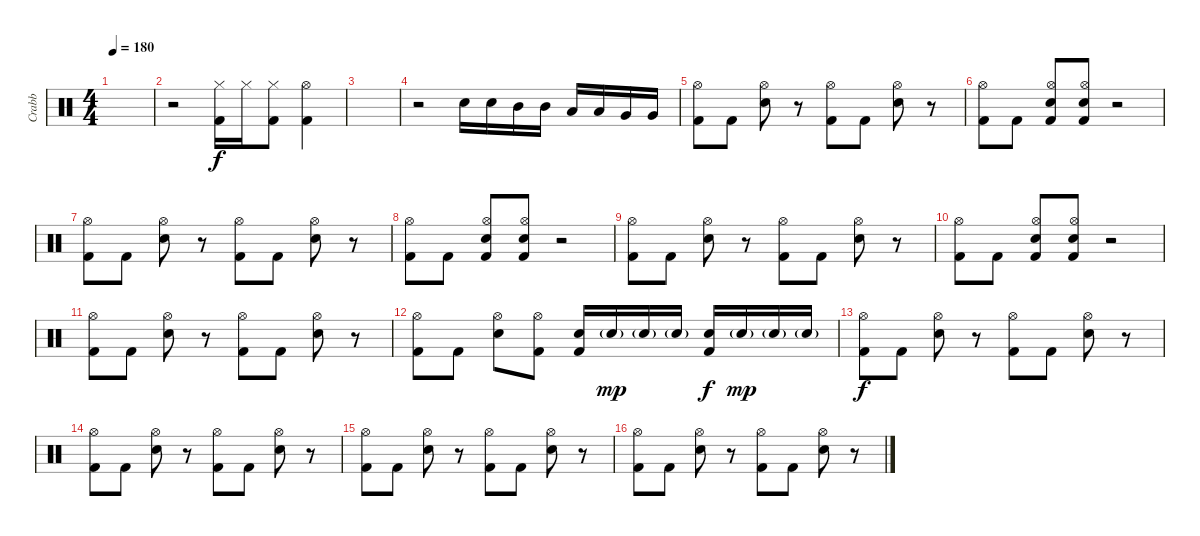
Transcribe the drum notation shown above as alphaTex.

\track ("Crabb" "Crabb") {instrument percussion}
\staff {score}
\articulation defaults
\ts (4 4)
\tempo 180
\clef neutral
\ks c
|
r.2 ("Hi-Hat (closed)" "Kick (hit) 2").16 "Hi-Hat (closed)".16 ("Hi-Hat (closed)" "Kick (hit) 2").8 ("Hi-Hat (open)" "Kick (hit) 2").4 |
|
r.2 "Electric Snare (hit)".16 "Electric Snare (hit)".16 "Mid Tom (hit)".16 "Mid Tom (hit)".16 "Low Tom (hit)".16 "Low Tom (hit)".16 "Very Low Tom (hit)".16 "Very Low Tom (hit)".16 |
("Hi-Hat (open)" "Kick (hit) 2").8 "Kick (hit) 2".8 ("Hi-Hat (open)" "Electric Snare (hit)").8 r.8 ("Hi-Hat (open)" "Kick (hit) 2").8 "Kick (hit) 2".8 ("Hi-Hat (open)" "Electric Snare (hit)").8 r.8 |
("Hi-Hat (open)" "Kick (hit) 2").8 "Kick (hit) 2".8 ("Hi-Hat (open)" "Electric Snare (hit)" "Kick (hit) 2").8 ("Hi-Hat (open)" "Electric Snare (hit)" "Kick (hit) 2").8 r.2 |
("Hi-Hat (open)" "Kick (hit) 2").8 "Kick (hit) 2".8 ("Hi-Hat (open)" "Electric Snare (hit)").8 r.8 ("Hi-Hat (open)" "Kick (hit) 2").8 "Kick (hit) 2".8 ("Hi-Hat (open)" "Electric Snare (hit)").8 r.8 |
("Hi-Hat (open)" "Kick (hit) 2").8 "Kick (hit) 2".8 ("Hi-Hat (open)" "Electric Snare (hit)" "Kick (hit) 2").8 ("Hi-Hat (open)" "Electric Snare (hit)" "Kick (hit) 2").8 r.2 |
("Hi-Hat (open)" "Kick (hit) 2").8 "Kick (hit) 2".8 ("Hi-Hat (open)" "Electric Snare (hit)").8 r.8 ("Hi-Hat (open)" "Kick (hit) 2").8 "Kick (hit) 2".8 ("Hi-Hat (open)" "Electric Snare (hit)").8 r.8 |
("Hi-Hat (open)" "Kick (hit) 2").8 "Kick (hit) 2".8 ("Hi-Hat (open)" "Electric Snare (hit)" "Kick (hit) 2").8 ("Hi-Hat (open)" "Electric Snare (hit)" "Kick (hit) 2").8 r.2 |
("Hi-Hat (open)" "Kick (hit) 2").8 "Kick (hit) 2".8 ("Hi-Hat (open)" "Electric Snare (hit)").8 r.8 ("Hi-Hat (open)" "Kick (hit) 2").8 "Kick (hit) 2".8 ("Hi-Hat (open)" "Electric Snare (hit)").8 r.8 |
("Hi-Hat (open)" "Kick (hit) 2").8 "Kick (hit) 2".8 ("Hi-Hat (open)" "Electric Snare (hit)").8 ("Hi-Hat (open)" "Kick (hit) 2").8 ("Electric Snare (hit)" "Kick (hit) 2").16 "Electric Snare (hit)"{g}.16{dy mp} "Electric Snare (hit)"{g}.16 "Electric Snare (hit)"{g}.16 ("Electric Snare (hit)" "Kick (hit) 2").16{dy f} "Electric Snare (hit)"{g}.16{dy mp} "Electric Snare (hit)"{g}.16 "Electric Snare (hit)"{g}.16 |
("Hi-Hat (open)" "Kick (hit) 2").8{dy f} "Kick (hit) 2".8 ("Hi-Hat (open)" "Electric Snare (hit)").8 r.8 ("Hi-Hat (open)" "Kick (hit) 2").8 "Kick (hit) 2".8 ("Hi-Hat (open)" "Electric Snare (hit)").8 r.8 |
("Hi-Hat (open)" "Kick (hit) 2").8 "Kick (hit) 2".8 ("Hi-Hat (open)" "Electric Snare (hit)").8 r.8 ("Hi-Hat (open)" "Kick (hit) 2").8 "Kick (hit) 2".8 ("Hi-Hat (open)" "Electric Snare (hit)").8 r.8 |
("Hi-Hat (open)" "Kick (hit) 2").8 "Kick (hit) 2".8 ("Hi-Hat (open)" "Electric Snare (hit)").8 r.8 ("Hi-Hat (open)" "Kick (hit) 2").8 "Kick (hit) 2".8 ("Hi-Hat (open)" "Electric Snare (hit)").8 r.8 |
("Hi-Hat (open)" "Kick (hit) 2").8 "Kick (hit) 2".8 ("Hi-Hat (open)" "Electric Snare (hit)").8 r.8 ("Hi-Hat (open)" "Kick (hit) 2").8 "Kick (hit) 2".8 ("Hi-Hat (open)" "Electric Snare (hit)").8 r.8
